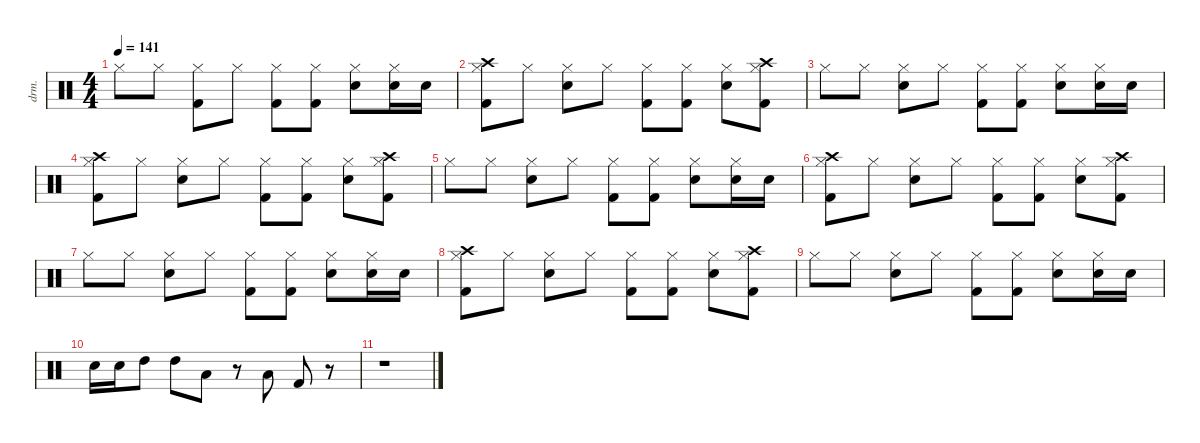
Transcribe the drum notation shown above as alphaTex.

\defaultSystemsLayout 4
\hideDynamics
\bracketExtendMode nobrackets
\otherSystemsTrackNameOrientation horizontal
\track ("Drum" "drm.") {instrument percussion}
\staff {score}
\articulation defaults
\ts (4 4)
\tempo 141
\clef neutral
\ks c "Hi-Hat (closed)".8{dy fff beam Down} "Hi-Hat (closed)".8{dy f beam Down}
("Hi-Hat (closed)" "Kick (hit) 2").8{dy fff beam Down} "Hi-Hat (closed)".8{dy f beam Down} ("Hi-Hat (closed)" "Kick (hit) 2").8{dy fff beam Down} ("Hi-Hat (closed)" "Kick (hit) 2").8{beam Down} ("Hi-Hat (closed)" "Snare (hit) 2").8{beam Down} ("Hi-Hat (closed)" "Snare (hit) 2").16{dy f beam Down} "Snare (hit) 2".16{beam Down} |
("Kick (hit) 2" "Hi-Hat (closed)" "Crash high (hit)").8{dy fff beam Down} "Hi-Hat (closed)".8{dy f beam Down} ("Snare (hit) 2" "Hi-Hat (closed)").8{dy fff beam Down} "Hi-Hat (closed)".8{dy f beam Down} ("Hi-Hat (closed)" "Kick (hit) 2").8{dy fff beam Down} ("Kick (hit) 2" "Hi-Hat (closed)").8{beam Down} ("Snare (hit) 2" "Hi-Hat (closed)").8{beam Down} ("Kick (hit) 2" "Hi-Hat (closed)" "Crash high (hit)").8{beam Down} |
"Hi-Hat (closed)".8{beam Down} "Hi-Hat (closed)".8{dy f beam Down} ("Hi-Hat (closed)" "Snare (hit) 2").8{dy fff beam Down} "Hi-Hat (closed)".8{dy f beam Down} ("Hi-Hat (closed)" "Kick (hit) 2").8{dy fff beam Down} ("Hi-Hat (closed)" "Kick (hit) 2").8{beam Down} ("Hi-Hat (closed)" "Snare (hit) 2").8{beam Down} ("Hi-Hat (closed)" "Snare (hit) 2").16{beam Down} "Snare (hit) 2".16{dy f beam Down} |
("Kick (hit) 2" "Hi-Hat (closed)" "Crash high (hit)").8{dy fff beam Down} "Hi-Hat (closed)".8{dy f beam Down} ("Snare (hit) 2" "Hi-Hat (closed)").8{dy fff beam Down} "Hi-Hat (closed)".8{dy f beam Down} ("Hi-Hat (closed)" "Kick (hit) 2").8{dy fff beam Down} ("Kick (hit) 2" "Hi-Hat (closed)").8{beam Down} ("Snare (hit) 2" "Hi-Hat (closed)").8{beam Down} ("Kick (hit) 2" "Hi-Hat (closed)" "Crash high (hit)").8{beam Down} |
"Hi-Hat (closed)".8{beam Down} "Hi-Hat (closed)".8{dy f beam Down} ("Hi-Hat (closed)" "Snare (hit) 2").8{dy fff beam Down} "Hi-Hat (closed)".8{dy f beam Down} ("Hi-Hat (closed)" "Kick (hit) 2").8{dy fff beam Down} ("Hi-Hat (closed)" "Kick (hit) 2").8{beam Down} ("Hi-Hat (closed)" "Snare (hit) 2").8{beam Down} ("Hi-Hat (closed)" "Snare (hit) 2").16{beam Down} "Snare (hit) 2".16{dy f beam Down} |
("Kick (hit) 2" "Hi-Hat (closed)" "Crash high (hit)").8{dy fff beam Down} "Hi-Hat (closed)".8{dy f beam Down} ("Snare (hit) 2" "Hi-Hat (closed)").8{dy fff beam Down} "Hi-Hat (closed)".8{dy f beam Down} ("Hi-Hat (closed)" "Kick (hit) 2").8{dy fff beam Down} ("Kick (hit) 2" "Hi-Hat (closed)").8{beam Down} ("Snare (hit) 2" "Hi-Hat (closed)").8{beam Down} ("Kick (hit) 2" "Hi-Hat (closed)" "Crash high (hit)").8{beam Down} |
"Hi-Hat (closed)".8{beam Down} "Hi-Hat (closed)".8{dy f beam Down} ("Hi-Hat (closed)" "Snare (hit) 2").8{dy fff beam Down} "Hi-Hat (closed)".8{dy f beam Down} ("Hi-Hat (closed)" "Kick (hit) 2").8{dy fff beam Down} ("Hi-Hat (closed)" "Kick (hit) 2").8{beam Down} ("Hi-Hat (closed)" "Snare (hit) 2").8{beam Down} ("Hi-Hat (closed)" "Snare (hit) 2").16{beam Down} "Snare (hit) 2".16{dy f beam Down} |
("Kick (hit) 2" "Hi-Hat (closed)" "Crash high (hit)").8{dy fff beam Down} "Hi-Hat (closed)".8{dy f beam Down} ("Snare (hit) 2" "Hi-Hat (closed)").8{dy fff beam Down} "Hi-Hat (closed)".8{dy f beam Down} ("Hi-Hat (closed)" "Kick (hit) 2").8{dy fff beam Down} ("Kick (hit) 2" "Hi-Hat (closed)").8{beam Down} ("Snare (hit) 2" "Hi-Hat (closed)").8{beam Down} ("Kick (hit) 2" "Hi-Hat (closed)" "Crash high (hit)").8{beam Down} |
"Hi-Hat (closed)".8{beam Down} "Hi-Hat (closed)".8{dy f beam Down} ("Hi-Hat (closed)" "Snare (hit) 2").8{dy fff beam Down} "Hi-Hat (closed)".8{dy f beam Down} ("Hi-Hat (closed)" "Kick (hit) 2").8{dy fff beam Down} ("Hi-Hat (closed)" "Kick (hit) 2").8{beam Down} ("Hi-Hat (closed)" "Snare (hit) 2").8{beam Down} ("Hi-Hat (closed)" "Snare (hit) 2").16{beam Down} "Snare (hit) 2".16{dy f beam Down} |
"Snare (hit) 2".16{dy fff beam Down} "Snare (hit) 2".16{beam Down} "High Tom (hit)".8{beam Down} "High Tom (hit)".8{beam Down} "Low Tom (hit)".8{beam Down} r.8{beam Down} "Low Floor Tom (hit)".8{beam Up} "Kick (hit) 2".8{beam Up} r.8{beam Up} |
r.1{beam Down}
